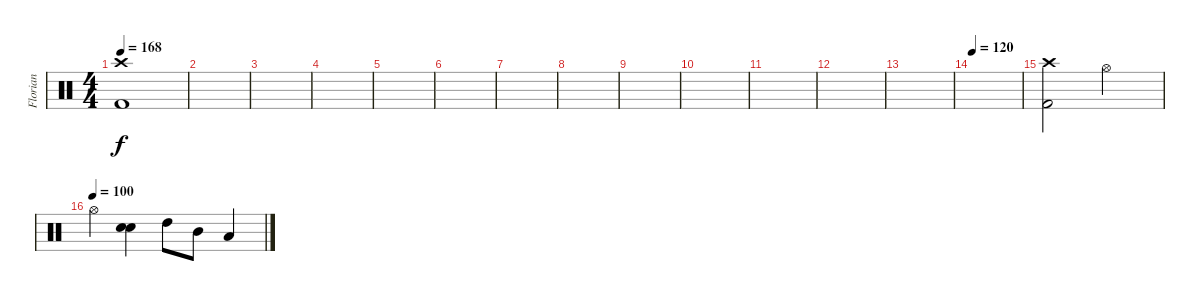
\track ("Florian" "Florian") {instrument percussion}
\staff {score}
\articulation defaults
\ts (4 4)
\tempo 168
\clef neutral
\ks c
("Crash high (hit)" "Kick (hit) 2").1{dy f} |
|
|
|
|
|
|
|
|
|
|
|
|
\tempo 120
|
("Crash high (hit)" "Kick (hit) 2").2 "Hi-Hat (open)".2 |
\tempo (100)
"Hi-Hat (open)".4 ("Snare (hit) 2" "Snare (hit) 2").4{bd 240} "High Tom (hit)".8 "Mid Tom (hit)".8 "Low Tom (hit)".4
